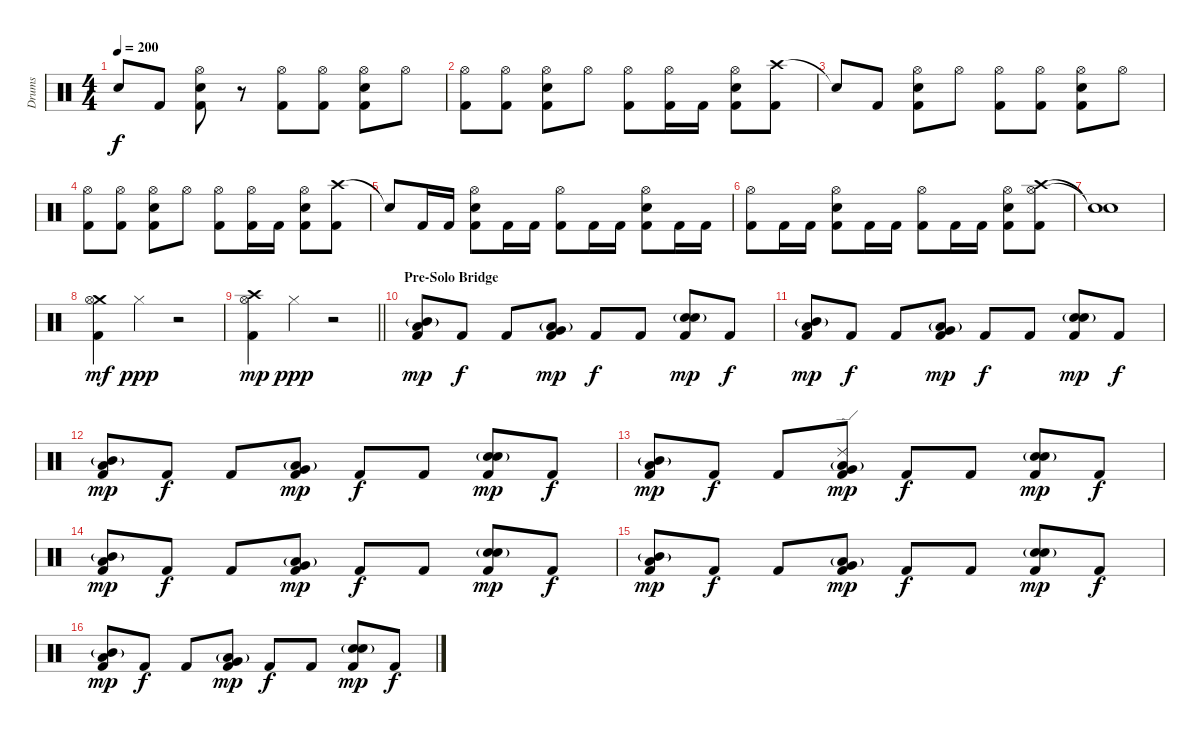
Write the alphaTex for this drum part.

\track ("Drums" "Drums") {instrument percussion}
\staff {score}
\articulation defaults
\ts (4 4)
\tempo 200
\clef neutral
\ks c "Snare (hit)"{t}.8{dy f} "Kick (hit) 2".8
("Hi-Hat (open)" "Snare (hit) 2" "Kick (hit) 2").8 r.8 ("Hi-Hat (open)" "Kick (hit) 2").8 ("Hi-Hat (open)" "Kick (hit) 2").8 ("Hi-Hat (open)" "Snare (hit) 2" "Kick (hit) 2").8 "Hi-Hat (open)".8 |
("Hi-Hat (open)" "Kick (hit) 2").8 ("Hi-Hat (open)" "Kick (hit) 2").8 ("Hi-Hat (open)" "Snare (hit) 2" "Kick (hit) 2").8 "Hi-Hat (open)".8 ("Hi-Hat (open)" "Kick (hit) 2").8 ("Hi-Hat (open)" "Kick (hit) 2").16 "Kick (hit) 2".16 ("Hi-Hat (open)" "Snare (hit) 2" "Kick (hit) 2").8 ("Crash high (hit)" "Kick (hit) 2").8 |
"Snare (hit)"{t}.8 "Kick (hit) 2".8 ("Hi-Hat (open)" "Snare (hit) 2" "Kick (hit) 2").8 "Hi-Hat (open)".8 ("Hi-Hat (open)" "Kick (hit) 2").8 ("Hi-Hat (open)" "Kick (hit) 2").8 ("Hi-Hat (open)" "Snare (hit) 2" "Kick (hit) 2").8 "Hi-Hat (open)".8 |
("Hi-Hat (open)" "Kick (hit) 2").8 ("Hi-Hat (open)" "Kick (hit) 2").8 ("Hi-Hat (open)" "Snare (hit) 2" "Kick (hit) 2").8 "Hi-Hat (open)".8 ("Hi-Hat (open)" "Kick (hit) 2").8 ("Hi-Hat (open)" "Kick (hit) 2").16 "Kick (hit) 2".16 ("Hi-Hat (open)" "Snare (hit) 2" "Kick (hit) 2").8 ("Crash high (hit)" "Kick (hit) 2").8 |
"Snare (hit)"{t}.8 "Kick (hit) 2".16 "Kick (hit) 2".16 ("Hi-Hat (open)" "Snare (hit) 2" "Kick (hit) 2").8 "Kick (hit) 2".16 "Kick (hit) 2".16 ("Hi-Hat (open)" "Kick (hit) 2").8 "Kick (hit) 2".16 "Kick (hit) 2".16 ("Hi-Hat (open)" "Snare (hit) 2" "Kick (hit) 2").8 "Kick (hit) 2".16 "Kick (hit) 2".16 |
("Hi-Hat (open)" "Kick (hit) 2").8 "Kick (hit) 2".16 "Kick (hit) 2".16 ("Hi-Hat (open)" "Snare (hit) 2" "Kick (hit) 2").8 "Kick (hit) 2".16 "Kick (hit) 2".16 ("Hi-Hat (open)" "Kick (hit) 2").8 "Kick (hit) 2".16 "Kick (hit) 2".16 ("Hi-Hat (open)" "Snare (hit) 2" "Kick (hit) 2").8 ("Crash high (hit)" "Hi-Hat (open)" "Kick (hit) 2").8 |
("Snare (hit)"{t} "Snare (hit)"{t}).1 |
("Crash medium (hit)" "Hi-Hat (open)" "Kick (hit) 2").4{dy mf} "Hi-Hat (closed)".4{dy ppp} r.2 |
\barLineRight lightlight
("Crash high (hit)" "Hi-Hat (open)" "Kick (hit) 2").4{dy mp} "Hi-Hat (closed)".4{dy ppp} r.2 |
\section ("" "Pre-Solo Bridge")
("Mid Tom (hit)"{g} "Low Tom (hit)" "Kick (hit) 2").8{dy mp} "Kick (hit) 2".8{dy f} "Kick (hit) 2".8 ("Low Tom (hit)"{g} "Very Low Tom (hit)" "Kick (hit) 2").8{dy mp} "Kick (hit) 2".8{dy f} "Kick (hit) 2".8 ("Electric Snare (hit)"{g} "Snare (hit) 2" "Kick (hit) 2").8{dy mp} "Kick (hit) 2".8{dy f} |
("Mid Tom (hit)"{g} "Low Tom (hit)" "Kick (hit) 2").8{dy mp} "Kick (hit) 2".8{dy f} "Kick (hit) 2".8 ("Low Tom (hit)"{g} "Very Low Tom (hit)" "Kick (hit) 2").8{dy mp} "Kick (hit) 2".8{dy f} "Kick (hit) 2".8 ("Electric Snare (hit)"{g} "Snare (hit) 2" "Kick (hit) 2").8{dy mp} "Kick (hit) 2".8{dy f} |
("Mid Tom (hit)"{g} "Low Tom (hit)" "Kick (hit) 2").8{dy mp} "Kick (hit) 2".8{dy f} "Kick (hit) 2".8 ("Low Tom (hit)"{g} "Very Low Tom (hit)" "Kick (hit) 2").8{dy mp} "Kick (hit) 2".8{dy f} "Kick (hit) 2".8 ("Electric Snare (hit)"{g} "Snare (hit) 2" "Kick (hit) 2").8{dy mp} "Kick (hit) 2".8{dy f} |
("Mid Tom (hit)"{g} "Low Tom (hit)" "Kick (hit) 2").8{dy mp} "Kick (hit) 2".8{dy f} "Kick (hit) 2".8 ("Ride (edge) 2" "Low Tom (hit)"{g} "Very Low Tom (hit)" "Kick (hit) 2").8{dy mp} "Kick (hit) 2".8{dy f} "Kick (hit) 2".8 ("Electric Snare (hit)"{g} "Snare (hit) 2" "Kick (hit) 2").8{dy mp} "Kick (hit) 2".8{dy f} |
("Mid Tom (hit)"{g} "Low Tom (hit)" "Kick (hit) 2").8{dy mp} "Kick (hit) 2".8{dy f} "Kick (hit) 2".8 ("Low Tom (hit)"{g} "Very Low Tom (hit)" "Kick (hit) 2").8{dy mp} "Kick (hit) 2".8{dy f} "Kick (hit) 2".8 ("Electric Snare (hit)"{g} "Snare (hit) 2" "Kick (hit) 2").8{dy mp} "Kick (hit) 2".8{dy f} |
("Mid Tom (hit)"{g} "Low Tom (hit)" "Kick (hit) 2").8{dy mp} "Kick (hit) 2".8{dy f} "Kick (hit) 2".8 ("Low Tom (hit)"{g} "Very Low Tom (hit)" "Kick (hit) 2").8{dy mp} "Kick (hit) 2".8{dy f} "Kick (hit) 2".8 ("Electric Snare (hit)"{g} "Snare (hit) 2" "Kick (hit) 2").8{dy mp} "Kick (hit) 2".8{dy f} |
("Mid Tom (hit)"{g} "Low Tom (hit)" "Kick (hit) 2").8{dy mp} "Kick (hit) 2".8{dy f} "Kick (hit) 2".8 ("Low Tom (hit)"{g} "Very Low Tom (hit)" "Kick (hit) 2").8{dy mp} "Kick (hit) 2".8{dy f} "Kick (hit) 2".8 ("Electric Snare (hit)"{g} "Snare (hit) 2" "Kick (hit) 2").8{dy mp} "Kick (hit) 2".8{dy f}
